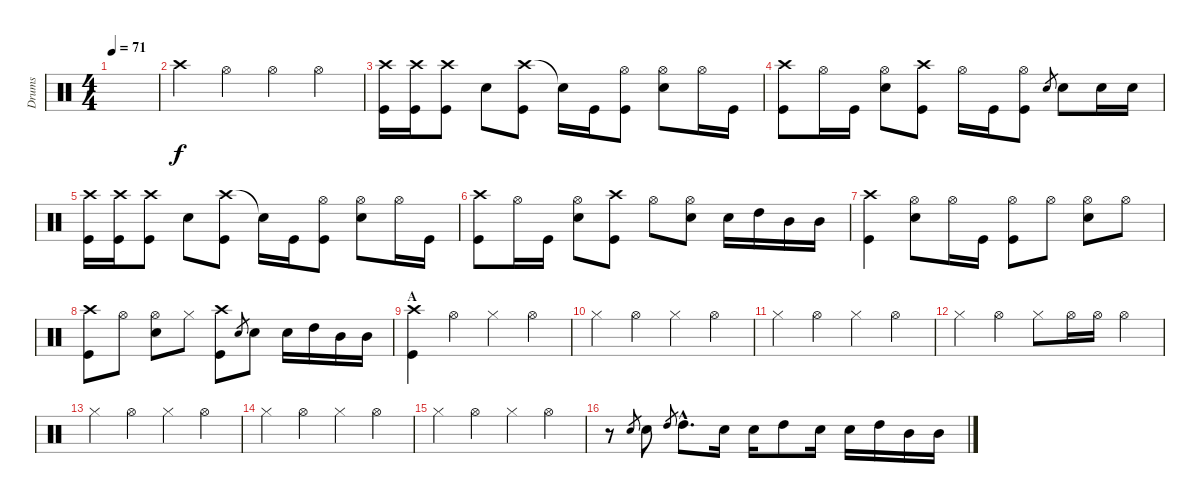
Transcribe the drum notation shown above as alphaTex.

\track ("Drums" "Drums") {instrument percussion}
\staff {score}
\articulation defaults
\ts (4 4)
\tempo 71
\clef neutral
\ks c
|
"Crash high (hit)".4 "Hi-Hat (open)".4 "Hi-Hat (open)".4 "Hi-Hat (open)".4 |
("Crash high (hit)" "Kick (hit)").16 ("Crash high (hit)" "Kick (hit)").16 ("Crash high (hit)" "Kick (hit)").8 "Snare (hit) 2".8 ("Crash high (hit)" "Kick (hit)").8 "Snare (hit)"{t}.16 "Kick (hit)".16 ("Hi-Hat (open)" "Kick (hit)").8 ("Hi-Hat (open)" "Snare (hit) 2").8 "Hi-Hat (open)".16 "Kick (hit)".16 |
("Crash high (hit)" "Kick (hit)").8 "Hi-Hat (open)".16 "Kick (hit)".16 ("Hi-Hat (open)" "Snare (hit) 2").8 ("Crash high (hit)" "Kick (hit)").8 "Hi-Hat (open)".16 "Kick (hit)".16 ("Hi-Hat (open)" "Kick (hit)").8 "Snare (hit) 2".8{gr} "Snare (hit) 2".8 "Snare (hit) 2".16 "Snare (hit) 2".16 |
("Crash high (hit)" "Kick (hit)").16 ("Crash high (hit)" "Kick (hit)").16 ("Crash high (hit)" "Kick (hit)").8 "Snare (hit) 2".8 ("Crash high (hit)" "Kick (hit)").8 "Snare (hit)"{t}.16 "Kick (hit)".16 ("Hi-Hat (open)" "Kick (hit)").8 ("Hi-Hat (open)" "Snare (hit) 2").8 "Hi-Hat (open)".16 "Kick (hit)".16 |
("Crash high (hit)" "Kick (hit)").8 "Hi-Hat (open)".16 "Kick (hit)".16 ("Hi-Hat (open)" "Snare (hit) 2").8 ("Crash high (hit)" "Kick (hit)").8 "Hi-Hat (open)".8 ("Hi-Hat (open)" "Snare (hit) 2").8 "Snare (hit) 2".16 "High Tom (hit)".16 "Mid Tom (hit)".16 "Mid Tom (hit)".16 |
("Crash high (hit)" "Kick (hit)").4 ("Hi-Hat (open)" "Snare (hit) 2").8 "Hi-Hat (open)".16 "Kick (hit)".16 ("Hi-Hat (open)" "Kick (hit)").8 "Hi-Hat (open)".8 ("Hi-Hat (open)" "Snare (hit) 2").8 "Hi-Hat (open)".8 |
("Crash high (hit)" "Kick (hit)").8 "Hi-Hat (open)".8 ("Hi-Hat (open)" "Snare (hit) 2").8 "Hi-Hat (closed)".8 ("Crash high (hit)" "Kick (hit)").8 "Snare (hit) 2".8{gr} "Snare (hit) 2".8 "Snare (hit) 2".16 "High Tom (hit)".16 "Mid Tom (hit)".16 "Mid Tom (hit)".16 |
\section ("" "A")
("Crash high (hit)" "Kick (hit)").4 "Hi-Hat (open)".4 "Hi-Hat (closed)".4 "Hi-Hat (open)".4 |
"Hi-Hat (closed)".4 "Hi-Hat (open)".4 "Hi-Hat (closed)".4 "Hi-Hat (open)".4 |
"Hi-Hat (closed)".4 "Hi-Hat (open)".4 "Hi-Hat (closed)".4 "Hi-Hat (open)".4 |
"Hi-Hat (closed)".4 "Hi-Hat (open)".4 "Hi-Hat (closed)".8 "Hi-Hat (open)".16 "Hi-Hat (open)".16 "Hi-Hat (open)".4 |
"Hi-Hat (closed)".4 "Hi-Hat (open)".4 "Hi-Hat (closed)".4 "Hi-Hat (open)".4 |
"Hi-Hat (closed)".4 "Hi-Hat (open)".4 "Hi-Hat (closed)".4 "Hi-Hat (open)".4 |
"Hi-Hat (closed)".4 "Hi-Hat (open)".4 "Hi-Hat (closed)".4 "Hi-Hat (open)".4 |
r.8 "Snare (hit) 2".8{gr} "Snare (hit) 2".8 "High Tom (hit)".8{gr} "High Tom (hit)"{hac}.8{d} "Snare (hit) 2".16 "Snare (hit) 2".16 "High Tom (hit)".8 "Snare (hit) 2".16 "Snare (hit) 2".16 "High Tom (hit)".16 "Mid Tom (hit)".16 "Mid Tom (hit)".16
